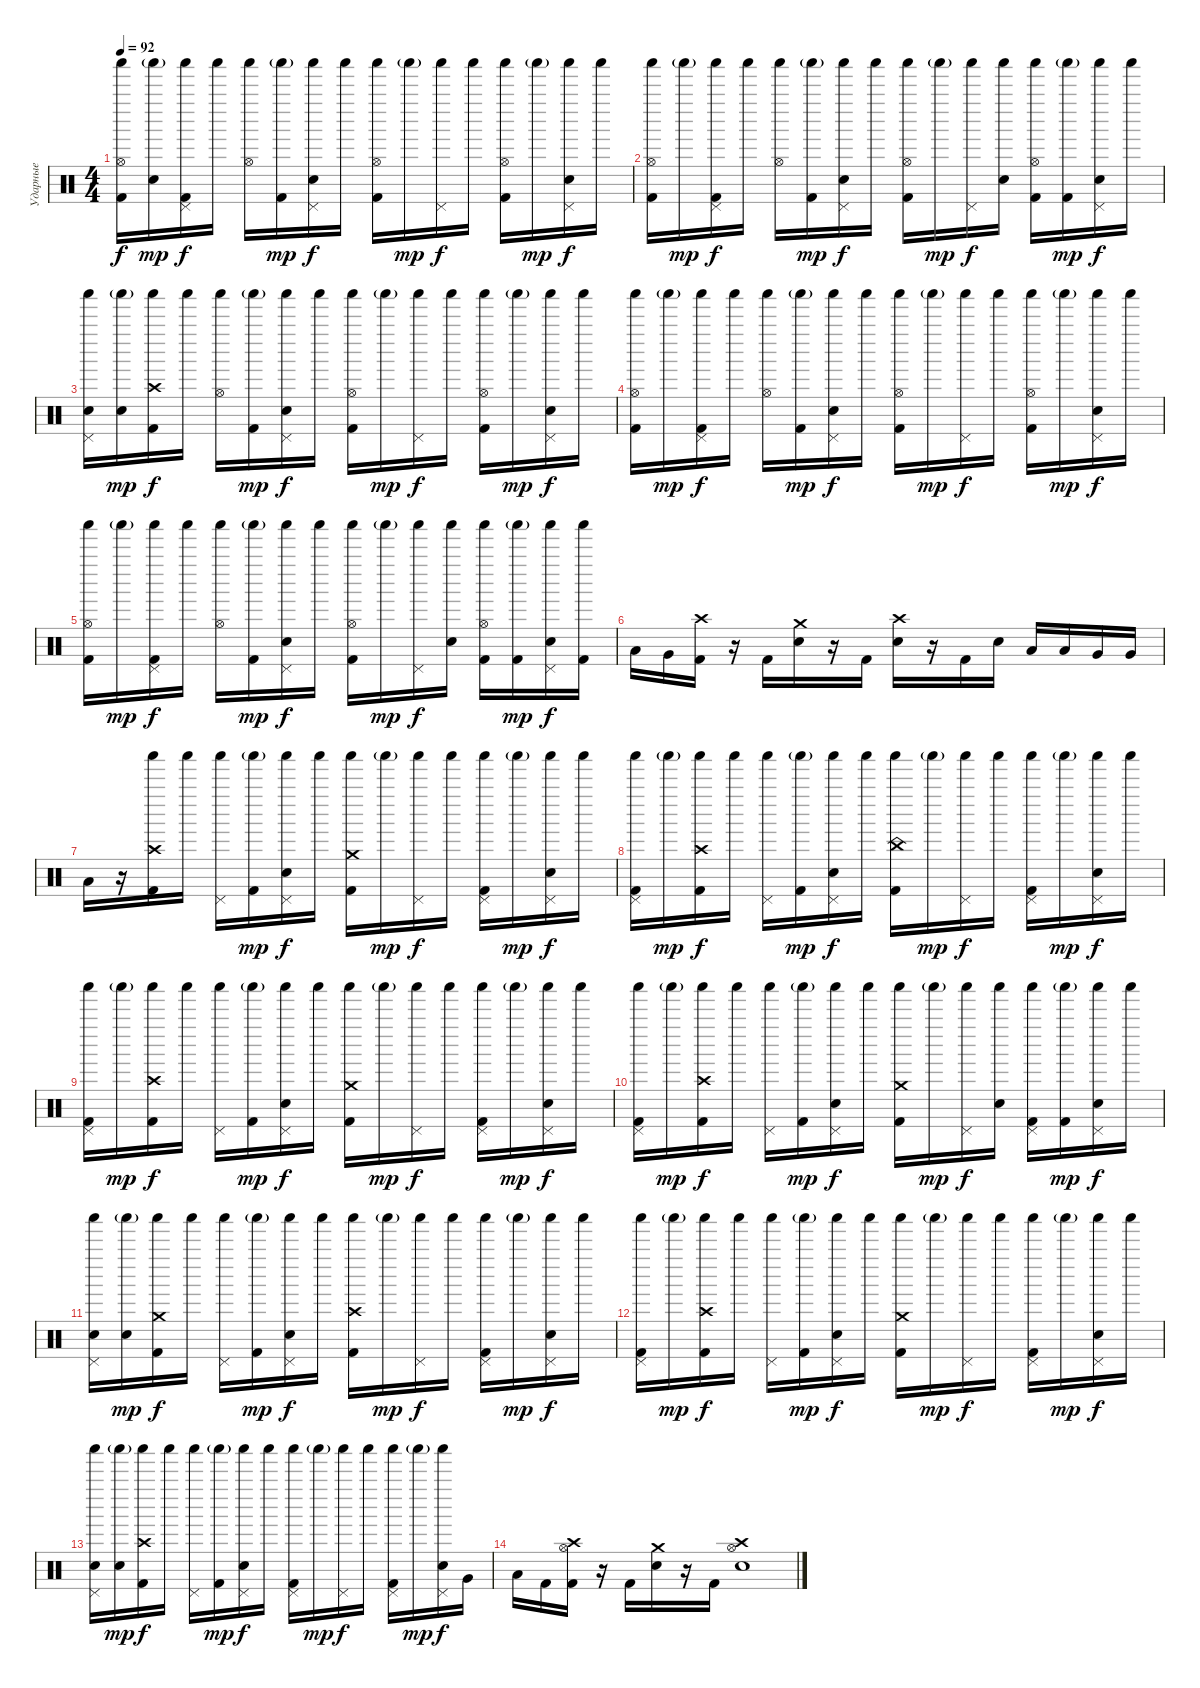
\track ("Ударные" "Ударные") {instrument percussion}
\staff {score}
\articulation defaults
\ts (4 4)
\tempo 92
\clef neutral
\ks c
("Hi-Hat (open)" "Shaker (hit)" "Kick (hit) 2").16{dy f} ("Shaker (hit)"{g} "Electric Snare (hit)").16{dy mp} ("Pedal Hi-Hat (hit)" "Shaker (hit)" "Kick (hit) 2").16{dy f} "Shaker (hit)".16 ("Hi-Hat (open)" "Shaker (hit)").16 ("Shaker (hit)"{g} "Kick (hit) 2").16{dy mp} ("Pedal Hi-Hat (hit)" "Shaker (hit)" "Electric Snare (hit)").16{dy f} "Shaker (hit)".16 ("Hi-Hat (open)" "Shaker (hit)" "Kick (hit) 2").16 "Shaker (hit)"{g}.16{dy mp} ("Pedal Hi-Hat (hit)" "Shaker (hit)").16{dy f} "Shaker (hit)".16 ("Hi-Hat (open)" "Shaker (hit)" "Kick (hit) 2").16 "Shaker (hit)"{g}.16{dy mp} ("Pedal Hi-Hat (hit)" "Shaker (hit)" "Electric Snare (hit)").16{dy f} "Shaker (hit)".16 |
("Hi-Hat (open)" "Shaker (hit)" "Kick (hit) 2").16 "Shaker (hit)"{g}.16{dy mp} ("Pedal Hi-Hat (hit)" "Shaker (hit)" "Kick (hit) 2").16{dy f} "Shaker (hit)".16 ("Hi-Hat (open)" "Shaker (hit)").16 ("Shaker (hit)"{g} "Kick (hit) 2").16{dy mp} ("Pedal Hi-Hat (hit)" "Shaker (hit)" "Electric Snare (hit)").16{dy f} "Shaker (hit)".16 ("Hi-Hat (open)" "Shaker (hit)" "Kick (hit) 2").16 "Shaker (hit)"{g}.16{dy mp} ("Pedal Hi-Hat (hit)" "Shaker (hit)").16{dy f} ("Shaker (hit)" "Electric Snare (hit)").16 ("Hi-Hat (open)" "Shaker (hit)" "Kick (hit) 2").16 ("Shaker (hit)"{g} "Kick (hit) 2").16{dy mp} ("Pedal Hi-Hat (hit)" "Shaker (hit)" "Electric Snare (hit)").16{dy f} "Shaker (hit)".16 |
("Pedal Hi-Hat (hit)" "Shaker (hit)" "Electric Snare (hit)").16 ("Shaker (hit)"{g} "Electric Snare (hit)").16{dy mp} ("Crash high (hit)" "Shaker (hit)" "Kick (hit) 2").16{dy f} "Shaker (hit)".16 ("Hi-Hat (open)" "Shaker (hit)").16 ("Shaker (hit)"{g} "Kick (hit) 2").16{dy mp} ("Pedal Hi-Hat (hit)" "Shaker (hit)" "Electric Snare (hit)").16{dy f} "Shaker (hit)".16 ("Hi-Hat (open)" "Shaker (hit)" "Kick (hit) 2").16 "Shaker (hit)"{g}.16{dy mp} ("Pedal Hi-Hat (hit)" "Shaker (hit)").16{dy f} "Shaker (hit)".16 ("Hi-Hat (open)" "Shaker (hit)" "Kick (hit) 2").16 "Shaker (hit)"{g}.16{dy mp} ("Pedal Hi-Hat (hit)" "Shaker (hit)" "Electric Snare (hit)").16{dy f} "Shaker (hit)".16 |
("Hi-Hat (open)" "Shaker (hit)" "Kick (hit) 2").16 "Shaker (hit)"{g}.16{dy mp} ("Pedal Hi-Hat (hit)" "Shaker (hit)" "Kick (hit) 2").16{dy f} "Shaker (hit)".16 ("Hi-Hat (open)" "Shaker (hit)").16 ("Shaker (hit)"{g} "Kick (hit) 2").16{dy mp} ("Pedal Hi-Hat (hit)" "Shaker (hit)" "Electric Snare (hit)").16{dy f} "Shaker (hit)".16 ("Hi-Hat (open)" "Shaker (hit)" "Kick (hit) 2").16 "Shaker (hit)"{g}.16{dy mp} ("Pedal Hi-Hat (hit)" "Shaker (hit)").16{dy f} "Shaker (hit)".16 ("Hi-Hat (open)" "Shaker (hit)" "Kick (hit) 2").16 "Shaker (hit)"{g}.16{dy mp} ("Pedal Hi-Hat (hit)" "Shaker (hit)" "Electric Snare (hit)").16{dy f} "Shaker (hit)".16 |
("Hi-Hat (open)" "Shaker (hit)" "Kick (hit) 2").16 "Shaker (hit)"{g}.16{dy mp} ("Pedal Hi-Hat (hit)" "Shaker (hit)" "Kick (hit) 2").16{dy f} "Shaker (hit)".16 ("Hi-Hat (open)" "Shaker (hit)").16 ("Shaker (hit)"{g} "Kick (hit) 2").16{dy mp} ("Pedal Hi-Hat (hit)" "Shaker (hit)" "Electric Snare (hit)").16{dy f} "Shaker (hit)".16 ("Hi-Hat (open)" "Shaker (hit)" "Kick (hit) 2").16 "Shaker (hit)"{g}.16{dy mp} ("Pedal Hi-Hat (hit)" "Shaker (hit)").16{dy f} ("Shaker (hit)" "Electric Snare (hit)").16 ("Hi-Hat (open)" "Shaker (hit)" "Kick (hit) 2").16 ("Shaker (hit)"{g} "Kick (hit) 2").16{dy mp} ("Pedal Hi-Hat (hit)" "Shaker (hit)" "Electric Snare (hit)").16{dy f} ("Shaker (hit)" "Kick (hit) 2").16 |
"Low Tom (hit)".16 "Very Low Tom (hit)".16 ("Crash high (hit)" "Kick (hit) 2").16 r.16 "Kick (hit) 2".16 ("Crash medium (hit)" "Electric Snare (hit)").16 r.16 "Kick (hit) 2".16 ("Crash high (hit)" "Electric Snare (hit)").16 r.16 "Kick (hit) 2".16 "Electric Snare (hit)".16 "Low Tom (hit)".16 "Low Tom (hit)".16 "Very Low Tom (hit)".16 "Very Low Tom (hit)".16 |
"Low Floor Tom (hit)".16 r.16 ("Crash high (hit)" "Shaker (hit)" "Kick (hit) 2").16 "Shaker (hit)".16 ("Pedal Hi-Hat (hit)" "Shaker (hit)").16 ("Shaker (hit)"{g} "Kick (hit) 2").16{dy mp} ("Pedal Hi-Hat (hit)" "Shaker (hit)" "Electric Snare (hit)").16{dy f} "Shaker (hit)".16 ("Crash medium (hit)" "Shaker (hit)" "Kick (hit) 2").16 "Shaker (hit)"{g}.16{dy mp} ("Pedal Hi-Hat (hit)" "Shaker (hit)").16{dy f} "Shaker (hit)".16 ("Pedal Hi-Hat (hit)" "Shaker (hit)" "Kick (hit) 2").16 "Shaker (hit)"{g}.16{dy mp} ("Pedal Hi-Hat (hit)" "Shaker (hit)" "Electric Snare (hit)").16{dy f} "Shaker (hit)".16 |
("Pedal Hi-Hat (hit)" "Shaker (hit)" "Kick (hit) 2").16 "Shaker (hit)"{g}.16{dy mp} ("Crash high (hit)" "Shaker (hit)" "Kick (hit) 2").16{dy f} "Shaker (hit)".16 ("Pedal Hi-Hat (hit)" "Shaker (hit)").16 ("Shaker (hit)"{g} "Kick (hit) 2").16{dy mp} ("Pedal Hi-Hat (hit)" "Shaker (hit)" "Electric Snare (hit)").16{dy f} "Shaker (hit)".16 ("China (hit)" "Shaker (hit)" "Kick (hit) 2").16 "Shaker (hit)"{g}.16{dy mp} ("Pedal Hi-Hat (hit)" "Shaker (hit)").16{dy f} "Shaker (hit)".16 ("Pedal Hi-Hat (hit)" "Shaker (hit)" "Kick (hit) 2").16 "Shaker (hit)"{g}.16{dy mp} ("Pedal Hi-Hat (hit)" "Shaker (hit)" "Electric Snare (hit)").16{dy f} "Shaker (hit)".16 |
("Pedal Hi-Hat (hit)" "Shaker (hit)" "Kick (hit) 2").16 "Shaker (hit)"{g}.16{dy mp} ("Crash high (hit)" "Shaker (hit)" "Kick (hit) 2").16{dy f} "Shaker (hit)".16 ("Pedal Hi-Hat (hit)" "Shaker (hit)").16 ("Shaker (hit)"{g} "Kick (hit) 2").16{dy mp} ("Pedal Hi-Hat (hit)" "Shaker (hit)" "Electric Snare (hit)").16{dy f} "Shaker (hit)".16 ("Crash medium (hit)" "Shaker (hit)" "Kick (hit) 2").16 "Shaker (hit)"{g}.16{dy mp} ("Pedal Hi-Hat (hit)" "Shaker (hit)").16{dy f} "Shaker (hit)".16 ("Pedal Hi-Hat (hit)" "Shaker (hit)" "Kick (hit) 2").16 "Shaker (hit)"{g}.16{dy mp} ("Pedal Hi-Hat (hit)" "Shaker (hit)" "Electric Snare (hit)").16{dy f} "Shaker (hit)".16 |
("Pedal Hi-Hat (hit)" "Shaker (hit)" "Kick (hit) 2").16 "Shaker (hit)"{g}.16{dy mp} ("Crash high (hit)" "Shaker (hit)" "Kick (hit) 2").16{dy f} "Shaker (hit)".16 ("Pedal Hi-Hat (hit)" "Shaker (hit)").16 ("Shaker (hit)"{g} "Kick (hit) 2").16{dy mp} ("Pedal Hi-Hat (hit)" "Shaker (hit)" "Electric Snare (hit)").16{dy f} "Shaker (hit)".16 ("Crash medium (hit)" "Shaker (hit)" "Kick (hit) 2").16 "Shaker (hit)"{g}.16{dy mp} ("Pedal Hi-Hat (hit)" "Shaker (hit)").16{dy f} ("Shaker (hit)" "Electric Snare (hit)").16 ("Pedal Hi-Hat (hit)" "Shaker (hit)" "Kick (hit) 2").16 ("Shaker (hit)"{g} "Kick (hit) 2").16{dy mp} ("Pedal Hi-Hat (hit)" "Shaker (hit)" "Electric Snare (hit)").16{dy f} "Shaker (hit)".16 |
("Pedal Hi-Hat (hit)" "Shaker (hit)" "Electric Snare (hit)").16 ("Shaker (hit)"{g} "Electric Snare (hit)").16{dy mp} ("Crash medium (hit)" "Shaker (hit)" "Kick (hit) 2").16{dy f} "Shaker (hit)".16 ("Pedal Hi-Hat (hit)" "Shaker (hit)").16 ("Shaker (hit)"{g} "Kick (hit) 2").16{dy mp} ("Pedal Hi-Hat (hit)" "Shaker (hit)" "Electric Snare (hit)").16{dy f} "Shaker (hit)".16 ("Crash high (hit)" "Shaker (hit)" "Kick (hit) 2").16 "Shaker (hit)"{g}.16{dy mp} ("Pedal Hi-Hat (hit)" "Shaker (hit)").16{dy f} "Shaker (hit)".16 ("Pedal Hi-Hat (hit)" "Shaker (hit)" "Kick (hit) 2").16 "Shaker (hit)"{g}.16{dy mp} ("Pedal Hi-Hat (hit)" "Shaker (hit)" "Electric Snare (hit)").16{dy f} "Shaker (hit)".16 |
("Pedal Hi-Hat (hit)" "Shaker (hit)" "Kick (hit) 2").16 "Shaker (hit)"{g}.16{dy mp} ("Crash high (hit)" "Shaker (hit)" "Kick (hit) 2").16{dy f} "Shaker (hit)".16 ("Pedal Hi-Hat (hit)" "Shaker (hit)").16 ("Shaker (hit)"{g} "Kick (hit) 2").16{dy mp} ("Pedal Hi-Hat (hit)" "Shaker (hit)" "Electric Snare (hit)").16{dy f} "Shaker (hit)".16 ("Crash medium (hit)" "Shaker (hit)" "Kick (hit) 2").16 "Shaker (hit)"{g}.16{dy mp} ("Pedal Hi-Hat (hit)" "Shaker (hit)").16{dy f} "Shaker (hit)".16 ("Pedal Hi-Hat (hit)" "Shaker (hit)" "Kick (hit) 2").16 "Shaker (hit)"{g}.16{dy mp} ("Pedal Hi-Hat (hit)" "Shaker (hit)" "Electric Snare (hit)").16{dy f} "Shaker (hit)".16 |
("Pedal Hi-Hat (hit)" "Shaker (hit)" "Electric Snare (hit)").16 ("Shaker (hit)"{g} "Electric Snare (hit)").16{dy mp} ("Crash high (hit)" "Shaker (hit)" "Kick (hit) 2").16{dy f} "Shaker (hit)".16 ("Pedal Hi-Hat (hit)" "Shaker (hit)").16 ("Shaker (hit)"{g} "Kick (hit) 2").16{dy mp} ("Pedal Hi-Hat (hit)" "Shaker (hit)" "Electric Snare (hit)").16{dy f} "Shaker (hit)".16 ("Pedal Hi-Hat (hit)" "Shaker (hit)" "Kick (hit) 2").16 "Shaker (hit)"{g}.16{dy mp} ("Pedal Hi-Hat (hit)" "Shaker (hit)").16{dy f} "Shaker (hit)".16 ("Pedal Hi-Hat (hit)" "Shaker (hit)" "Kick (hit) 2").16 "Shaker (hit)"{g}.16{dy mp} ("Pedal Hi-Hat (hit)" "Shaker (hit)" "Electric Snare (hit)").16{dy f} "Very Low Tom (hit)".16 |
"Low Floor Tom (hit)".16 "Kick (hit) 2".16 ("Crash high (hit)" "Hi-Hat (open)" "Kick (hit) 2").16 r.16 "Kick (hit) 2".16 ("Crash medium (hit)" "Electric Snare (hit)").16 r.16 "Kick (hit) 2".16 ("Crash high (hit)" "Hi-Hat (open)" "Electric Snare (hit)").1
